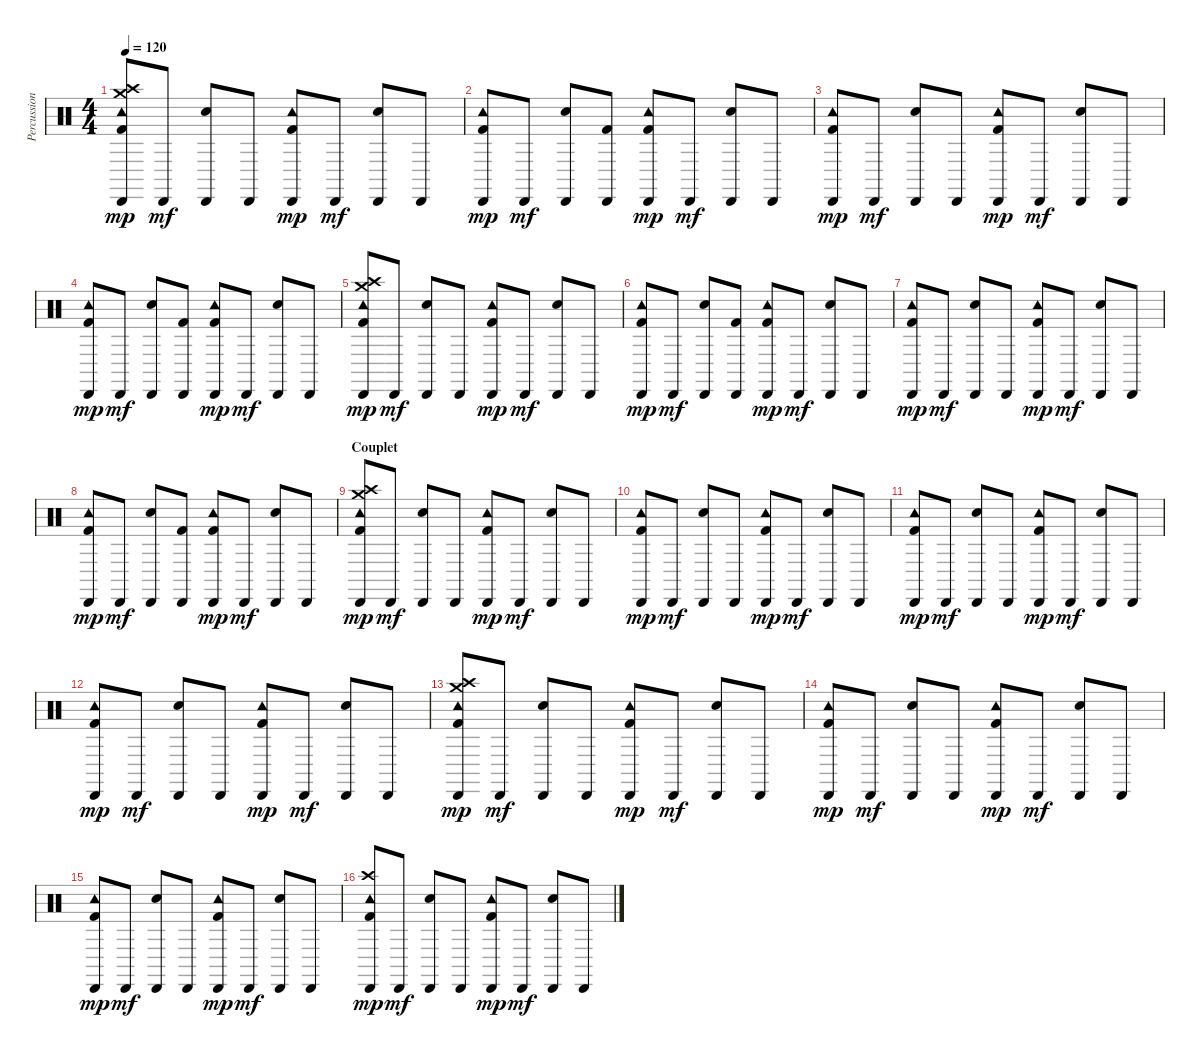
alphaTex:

\track ("Percussions" "Percussion") {instrument percussion}
\staff {score}
\articulation defaults
\ts (4 4)
\tempo 120
\clef neutral
\ks c
("Tambourine (hit)" "Cabasa (hit)" "Crash medium (hit)" "Crash high (hit)" "Kick (hit) 2").8{dy mp} "Cabasa (hit)".8{dy mf} ("Cabasa (hit)" "Electric Snare (hit)").8 "Cabasa (hit)".8 ("Tambourine (hit)" "Cabasa (hit)" "Kick (hit) 2").8{dy mp} "Cabasa (hit)".8{dy mf} ("Cabasa (hit)" "Electric Snare (hit)").8 "Cabasa (hit)".8 |
("Tambourine (hit)" "Cabasa (hit)" "Kick (hit) 2").8{dy mp} "Cabasa (hit)".8{dy mf} ("Cabasa (hit)" "Electric Snare (hit)").8 ("Cabasa (hit)" "Kick (hit) 2").8 ("Tambourine (hit)" "Cabasa (hit)" "Kick (hit) 2").8{dy mp} "Cabasa (hit)".8{dy mf} ("Cabasa (hit)" "Electric Snare (hit)").8 "Cabasa (hit)".8 |
("Tambourine (hit)" "Cabasa (hit)" "Kick (hit) 2").8{dy mp} "Cabasa (hit)".8{dy mf} ("Cabasa (hit)" "Electric Snare (hit)").8 "Cabasa (hit)".8 ("Tambourine (hit)" "Cabasa (hit)" "Kick (hit) 2").8{dy mp} "Cabasa (hit)".8{dy mf} ("Cabasa (hit)" "Electric Snare (hit)").8 "Cabasa (hit)".8 |
("Tambourine (hit)" "Cabasa (hit)" "Kick (hit) 2").8{dy mp} "Cabasa (hit)".8{dy mf} ("Cabasa (hit)" "Electric Snare (hit)").8 ("Cabasa (hit)" "Kick (hit) 2").8 ("Tambourine (hit)" "Cabasa (hit)" "Kick (hit) 2").8{dy mp} "Cabasa (hit)".8{dy mf} ("Cabasa (hit)" "Electric Snare (hit)").8 "Cabasa (hit)".8 |
("Tambourine (hit)" "Cabasa (hit)" "Crash medium (hit)" "Crash high (hit)" "Kick (hit) 2").8{dy mp} "Cabasa (hit)".8{dy mf} ("Cabasa (hit)" "Electric Snare (hit)").8 "Cabasa (hit)".8 ("Tambourine (hit)" "Cabasa (hit)" "Kick (hit) 2").8{dy mp} "Cabasa (hit)".8{dy mf} ("Cabasa (hit)" "Electric Snare (hit)").8 "Cabasa (hit)".8 |
("Tambourine (hit)" "Cabasa (hit)" "Kick (hit) 2").8{dy mp} "Cabasa (hit)".8{dy mf} ("Cabasa (hit)" "Electric Snare (hit)").8 ("Cabasa (hit)" "Kick (hit) 2").8 ("Tambourine (hit)" "Cabasa (hit)" "Kick (hit) 2").8{dy mp} "Cabasa (hit)".8{dy mf} ("Cabasa (hit)" "Electric Snare (hit)").8 "Cabasa (hit)".8 |
("Tambourine (hit)" "Cabasa (hit)" "Kick (hit) 2").8{dy mp} "Cabasa (hit)".8{dy mf} ("Cabasa (hit)" "Electric Snare (hit)").8 "Cabasa (hit)".8 ("Tambourine (hit)" "Cabasa (hit)" "Kick (hit) 2").8{dy mp} "Cabasa (hit)".8{dy mf} ("Cabasa (hit)" "Electric Snare (hit)").8 "Cabasa (hit)".8 |
("Tambourine (hit)" "Cabasa (hit)" "Kick (hit) 2").8{dy mp} "Cabasa (hit)".8{dy mf} ("Cabasa (hit)" "Electric Snare (hit)").8 ("Cabasa (hit)" "Kick (hit) 2").8 ("Tambourine (hit)" "Cabasa (hit)" "Kick (hit) 2").8{dy mp} "Cabasa (hit)".8{dy mf} ("Cabasa (hit)" "Electric Snare (hit)").8 "Cabasa (hit)".8 |
\section ("" "Couplet")
("Tambourine (hit)" "Cabasa (hit)" "Crash medium (hit)" "Crash high (hit)" "Kick (hit) 2").8{dy mp} "Cabasa (hit)".8{dy mf} ("Cabasa (hit)" "Electric Snare (hit)").8 "Cabasa (hit)".8 ("Tambourine (hit)" "Cabasa (hit)" "Kick (hit) 2").8{dy mp} "Cabasa (hit)".8{dy mf} ("Cabasa (hit)" "Electric Snare (hit)").8 "Cabasa (hit)".8 |
("Tambourine (hit)" "Cabasa (hit)" "Kick (hit) 2").8{dy mp} "Cabasa (hit)".8{dy mf} ("Cabasa (hit)" "Electric Snare (hit)").8 "Cabasa (hit)".8 ("Tambourine (hit)" "Cabasa (hit)" "Kick (hit) 2").8{dy mp} "Cabasa (hit)".8{dy mf} ("Cabasa (hit)" "Electric Snare (hit)").8 "Cabasa (hit)".8 |
("Tambourine (hit)" "Cabasa (hit)" "Kick (hit) 2").8{dy mp} "Cabasa (hit)".8{dy mf} ("Cabasa (hit)" "Electric Snare (hit)").8 "Cabasa (hit)".8 ("Tambourine (hit)" "Cabasa (hit)" "Kick (hit) 2").8{dy mp} "Cabasa (hit)".8{dy mf} ("Cabasa (hit)" "Electric Snare (hit)").8 "Cabasa (hit)".8 |
("Tambourine (hit)" "Cabasa (hit)" "Kick (hit) 2").8{dy mp} "Cabasa (hit)".8{dy mf} ("Cabasa (hit)" "Electric Snare (hit)").8 "Cabasa (hit)".8 ("Tambourine (hit)" "Cabasa (hit)" "Kick (hit) 2").8{dy mp} "Cabasa (hit)".8{dy mf} ("Cabasa (hit)" "Electric Snare (hit)").8 "Cabasa (hit)".8 |
("Tambourine (hit)" "Cabasa (hit)" "Crash medium (hit)" "Crash high (hit)" "Kick (hit) 2").8{dy mp} "Cabasa (hit)".8{dy mf} ("Cabasa (hit)" "Electric Snare (hit)").8 "Cabasa (hit)".8 ("Tambourine (hit)" "Cabasa (hit)" "Kick (hit) 2").8{dy mp} "Cabasa (hit)".8{dy mf} ("Cabasa (hit)" "Electric Snare (hit)").8 "Cabasa (hit)".8 |
("Tambourine (hit)" "Cabasa (hit)" "Kick (hit) 2").8{dy mp} "Cabasa (hit)".8{dy mf} ("Cabasa (hit)" "Electric Snare (hit)").8 "Cabasa (hit)".8 ("Tambourine (hit)" "Cabasa (hit)" "Kick (hit) 2").8{dy mp} "Cabasa (hit)".8{dy mf} ("Cabasa (hit)" "Electric Snare (hit)").8 "Cabasa (hit)".8 |
("Tambourine (hit)" "Cabasa (hit)" "Kick (hit) 2").8{dy mp} "Cabasa (hit)".8{dy mf} ("Cabasa (hit)" "Electric Snare (hit)").8 "Cabasa (hit)".8 ("Tambourine (hit)" "Cabasa (hit)" "Kick (hit) 2").8{dy mp} "Cabasa (hit)".8{dy mf} ("Cabasa (hit)" "Electric Snare (hit)").8 "Cabasa (hit)".8 |
("Tambourine (hit)" "Cabasa (hit)" "Crash high (hit)" "Kick (hit) 2").8{dy mp} "Cabasa (hit)".8{dy mf} ("Cabasa (hit)" "Electric Snare (hit)").8 "Cabasa (hit)".8 ("Tambourine (hit)" "Cabasa (hit)" "Kick (hit) 2").8{dy mp} "Cabasa (hit)".8{dy mf} ("Cabasa (hit)" "Electric Snare (hit)").8 "Cabasa (hit)".8
